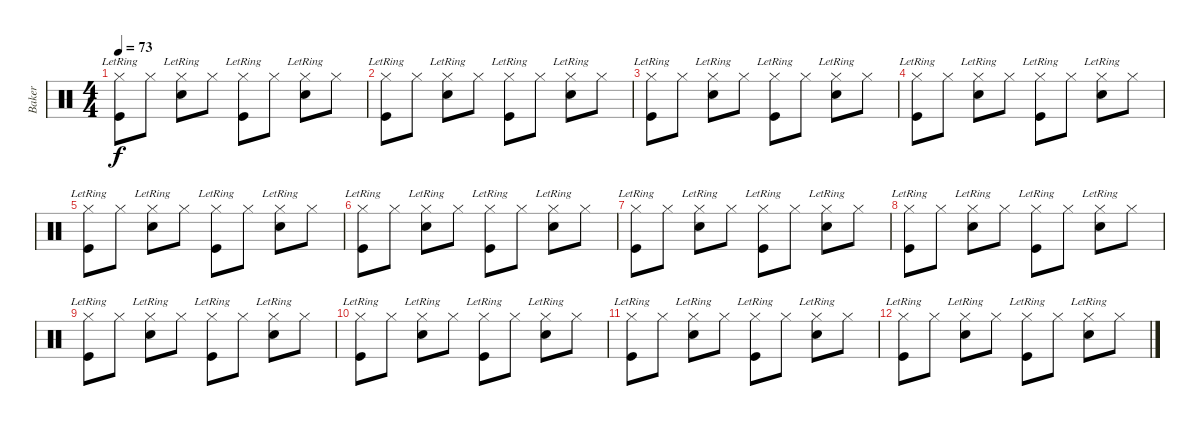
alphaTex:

\track ("Baker" "Baker") {instrument percussion}
\staff {score}
\articulation defaults
\ts (4 4)
\tempo 73
\clef neutral
\ks c
("Hi-Hat (closed)" "Kick (hit)"{lr}).8{dy f} "Hi-Hat (closed)".8 ("Hi-Hat (closed)" "Electric Snare (hit)"{lr}).8 "Hi-Hat (closed)".8 ("Hi-Hat (closed)" "Kick (hit)"{lr}).8 "Hi-Hat (closed)".8 ("Hi-Hat (closed)" "Electric Snare (hit)"{lr}).8 "Hi-Hat (closed)".8 |
("Hi-Hat (closed)" "Kick (hit)"{lr}).8 "Hi-Hat (closed)".8 ("Hi-Hat (closed)" "Electric Snare (hit)"{lr}).8 "Hi-Hat (closed)".8 ("Hi-Hat (closed)" "Kick (hit)"{lr}).8 "Hi-Hat (closed)".8 ("Hi-Hat (closed)" "Electric Snare (hit)"{lr}).8 "Hi-Hat (closed)".8 |
("Hi-Hat (closed)" "Kick (hit)"{lr}).8 "Hi-Hat (closed)".8 ("Hi-Hat (closed)" "Electric Snare (hit)"{lr}).8 "Hi-Hat (closed)".8 ("Hi-Hat (closed)" "Kick (hit)"{lr}).8 "Hi-Hat (closed)".8 ("Hi-Hat (closed)" "Electric Snare (hit)"{lr}).8 "Hi-Hat (closed)".8 |
("Hi-Hat (closed)" "Kick (hit)"{lr}).8 "Hi-Hat (closed)".8 ("Hi-Hat (closed)" "Electric Snare (hit)"{lr}).8 "Hi-Hat (closed)".8 ("Hi-Hat (closed)" "Kick (hit)"{lr}).8 "Hi-Hat (closed)".8 ("Hi-Hat (closed)" "Electric Snare (hit)"{lr}).8 "Hi-Hat (closed)".8 |
("Hi-Hat (closed)" "Kick (hit)"{lr}).8 "Hi-Hat (closed)".8 ("Hi-Hat (closed)" "Electric Snare (hit)"{lr}).8 "Hi-Hat (closed)".8 ("Hi-Hat (closed)" "Kick (hit)"{lr}).8 "Hi-Hat (closed)".8 ("Hi-Hat (closed)" "Electric Snare (hit)"{lr}).8 "Hi-Hat (closed)".8 |
("Hi-Hat (closed)" "Kick (hit)"{lr}).8 "Hi-Hat (closed)".8 ("Hi-Hat (closed)" "Electric Snare (hit)"{lr}).8 "Hi-Hat (closed)".8 ("Hi-Hat (closed)" "Kick (hit)"{lr}).8 "Hi-Hat (closed)".8 ("Hi-Hat (closed)" "Electric Snare (hit)"{lr}).8 "Hi-Hat (closed)".8 |
("Hi-Hat (closed)" "Kick (hit)"{lr}).8 "Hi-Hat (closed)".8 ("Hi-Hat (closed)" "Electric Snare (hit)"{lr}).8 "Hi-Hat (closed)".8 ("Hi-Hat (closed)" "Kick (hit)"{lr}).8 "Hi-Hat (closed)".8 ("Hi-Hat (closed)" "Electric Snare (hit)"{lr}).8 "Hi-Hat (closed)".8 |
("Hi-Hat (closed)" "Kick (hit)"{lr}).8 "Hi-Hat (closed)".8 ("Hi-Hat (closed)" "Electric Snare (hit)"{lr}).8 "Hi-Hat (closed)".8 ("Hi-Hat (closed)" "Kick (hit)"{lr}).8 "Hi-Hat (closed)".8 ("Hi-Hat (closed)" "Electric Snare (hit)"{lr}).8 "Hi-Hat (closed)".8 |
("Hi-Hat (closed)" "Kick (hit)"{lr}).8 "Hi-Hat (closed)".8 ("Hi-Hat (closed)" "Electric Snare (hit)"{lr}).8 "Hi-Hat (closed)".8 ("Hi-Hat (closed)" "Kick (hit)"{lr}).8 "Hi-Hat (closed)".8 ("Hi-Hat (closed)" "Electric Snare (hit)"{lr}).8 "Hi-Hat (closed)".8 |
("Hi-Hat (closed)" "Kick (hit)"{lr}).8 "Hi-Hat (closed)".8 ("Hi-Hat (closed)" "Electric Snare (hit)"{lr}).8 "Hi-Hat (closed)".8 ("Hi-Hat (closed)" "Kick (hit)"{lr}).8 "Hi-Hat (closed)".8 ("Hi-Hat (closed)" "Electric Snare (hit)"{lr}).8 "Hi-Hat (closed)".8 |
("Hi-Hat (closed)" "Kick (hit)"{lr}).8{volume 0} "Hi-Hat (closed)".8 ("Hi-Hat (closed)" "Electric Snare (hit)"{lr}).8 "Hi-Hat (closed)".8 ("Hi-Hat (closed)" "Kick (hit)"{lr}).8 "Hi-Hat (closed)".8 ("Hi-Hat (closed)" "Electric Snare (hit)"{lr}).8 "Hi-Hat (closed)".8 |
("Hi-Hat (closed)" "Kick (hit)"{lr}).8 "Hi-Hat (closed)".8 ("Hi-Hat (closed)" "Electric Snare (hit)"{lr}).8 "Hi-Hat (closed)".8 ("Hi-Hat (closed)" "Kick (hit)"{lr}).8 "Hi-Hat (closed)".8 ("Hi-Hat (closed)" "Electric Snare (hit)"{lr}).8 "Hi-Hat (closed)".8
